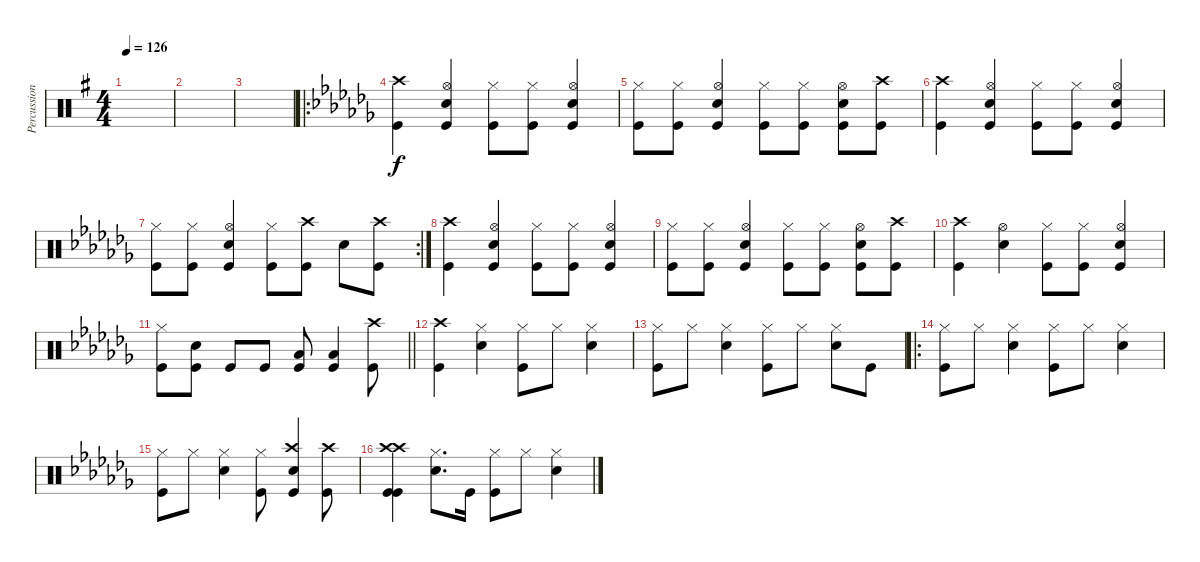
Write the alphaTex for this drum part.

\track ("Percussion" "Percussion") {instrument percussion}
\staff {score}
\articulation defaults
\ts (4 4)
\tempo 126
\clef neutral
\ks g
|
|
|
\ro
\ks cb
("Kick (hit)" "Crash high (hit)").4 ("Hi-Hat (open)" "Snare (hit) 2" "Kick (hit)").4 ("Hi-Hat (closed)" "Kick (hit)").8 ("Kick (hit)" "Hi-Hat (closed)").8 ("Hi-Hat (open)" "Snare (hit) 2" "Kick (hit)").4 |
("Hi-Hat (closed)" "Kick (hit)").8 ("Hi-Hat (closed)" "Kick (hit)").8 ("Snare (hit) 2" "Kick (hit)" "Hi-Hat (open)").4 ("Hi-Hat (closed)" "Kick (hit)").8 ("Kick (hit)" "Hi-Hat (closed)").8 ("Kick (hit)" "Snare (hit) 2" "Hi-Hat (open)").8 ("Crash high (hit)" "Kick (hit)").8 |
("Kick (hit)" "Crash high (hit)").4 ("Hi-Hat (open)" "Snare (hit) 2" "Kick (hit)").4 ("Hi-Hat (closed)" "Kick (hit)").8 ("Kick (hit)" "Hi-Hat (closed)").8 ("Hi-Hat (open)" "Snare (hit) 2" "Kick (hit)").4 |
\rc 2
("Kick (hit)" "Hi-Hat (closed)").8 ("Kick (hit)" "Hi-Hat (closed)").8 ("Kick (hit)" "Hi-Hat (open)" "Snare (hit) 2").4 ("Hi-Hat (closed)" "Kick (hit)").8 ("Crash high (hit)" "Kick (hit)").8 "Snare (hit) 2".8 ("Kick (hit)" "Crash high (hit)").8 |
("Crash high (hit)" "Kick (hit)").4 ("Kick (hit)" "Snare (hit) 2" "Hi-Hat (open)").4 ("Hi-Hat (closed)" "Kick (hit)").8 ("Hi-Hat (closed)" "Kick (hit)").8 ("Hi-Hat (open)" "Kick (hit)" "Snare (hit) 2").4 |
("Hi-Hat (closed)" "Kick (hit)").8 ("Hi-Hat (closed)" "Kick (hit)").8 ("Hi-Hat (open)" "Kick (hit)" "Snare (hit) 2").4 ("Hi-Hat (closed)" "Kick (hit)").8 ("Hi-Hat (closed)" "Kick (hit)").8 ("Kick (hit)" "Hi-Hat (open)" "Snare (hit) 2").8 ("Crash high (hit)" "Kick (hit)").8 |
("Crash high (hit)" "Kick (hit)").4 ("Hi-Hat (open)" "Snare (hit) 2").4 ("Hi-Hat (closed)" "Kick (hit)").8 ("Hi-Hat (closed)" "Kick (hit)").8 ("Hi-Hat (open)" "Kick (hit)" "Snare (hit) 2").4 |
\barLineRight lightlight
("Hi-Hat (closed)" "Kick (hit)").8 ("Snare (hit) 2" "Kick (hit)").8 "Kick (hit)".8 "Kick (hit)".8 ("Kick (hit)" "Low Tom (hit)").8 ("Kick (hit)" "Low Tom (hit)").4 ("Kick (hit)" "Crash high (hit)").8 |
("Crash high (hit)" "Kick (hit)").4 ("Snare (hit) 2" "Hi-Hat (closed)").4 ("Hi-Hat (closed)" "Kick (hit)").8 "Hi-Hat (closed)".8 ("Hi-Hat (closed)" "Snare (hit) 2").4 |
("Kick (hit)" "Hi-Hat (closed)").8 "Hi-Hat (closed)".8 ("Hi-Hat (closed)" "Snare (hit) 2").4 ("Kick (hit)" "Hi-Hat (closed)").8 "Hi-Hat (closed)".8 ("Hi-Hat (closed)" "Snare (hit) 2").8 "Kick (hit)".8 |
\ro
("Hi-Hat (closed)" "Kick (hit)").8 "Hi-Hat (closed)".8 ("Hi-Hat (closed)" "Snare (hit) 2").4 ("Kick (hit)" "Hi-Hat (closed)").8 "Hi-Hat (closed)".8 ("Hi-Hat (closed)" "Snare (hit) 2").4 |
("Hi-Hat (closed)" "Kick (hit)").8 "Hi-Hat (closed)".8 ("Snare (hit) 2" "Hi-Hat (closed)").4 ("Hi-Hat (closed)" "Kick (hit)").8 ("Snare (hit) 2" "Crash high (hit)" "Kick (hit)").4 ("Kick (hit)" "Crash high (hit)").8 |
("Crash high (hit)" "Kick (hit)" "Crash high (hit)" "Kick (hit)").4 ("Snare (hit) 2" "Hi-Hat (closed)").8{d} "Kick (hit)".16 ("Hi-Hat (closed)" "Kick (hit)").8 "Hi-Hat (closed)".8 ("Hi-Hat (closed)" "Snare (hit) 2").4
